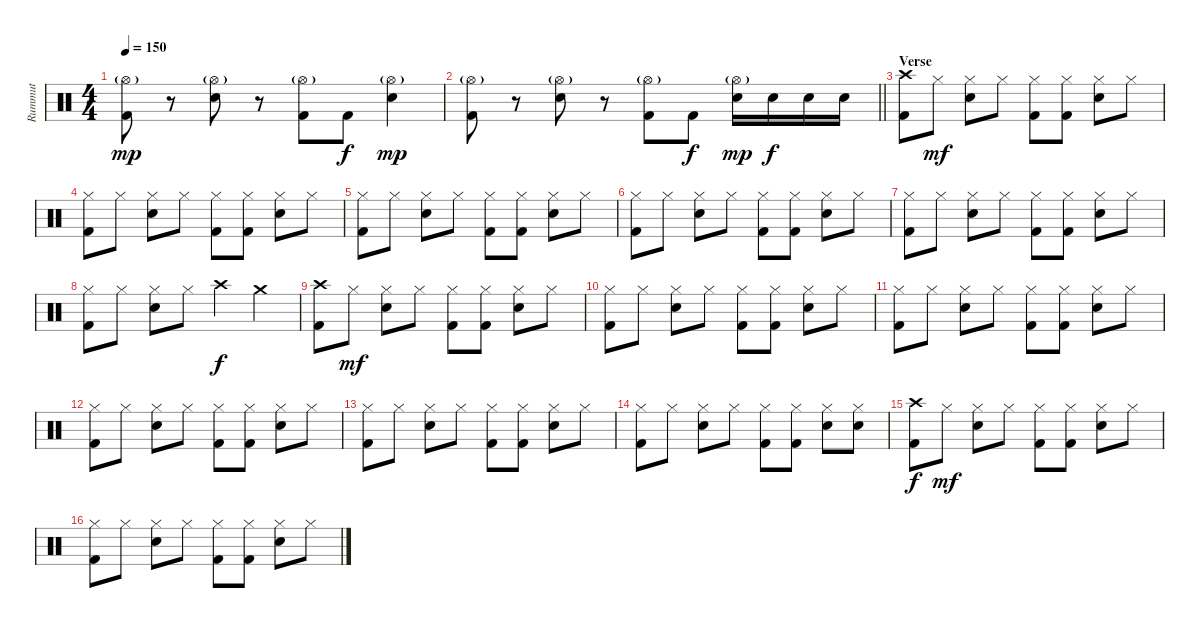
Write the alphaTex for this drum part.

\track ("Rummut" "Rummut") {instrument percussion bank 69}
\staff {score}
\articulation defaults
\ts (4 4)
\tempo 150
\clef neutral
\ks c
("Hi-Hat (open)"{g} "Kick (hit) 2").8{dy mp} r.8 ("Hi-Hat (open)"{g} "Snare (hit) 2").8 r.8 ("Hi-Hat (open)"{g} "Kick (hit) 2").8 "Kick (hit) 2".8{dy f} ("Hi-Hat (open)"{g} "Snare (hit) 2").4{dy mp} |
\barLineRight lightlight
("Hi-Hat (open)"{g} "Kick (hit) 2").8 r.8 ("Hi-Hat (open)"{g} "Snare (hit) 2").8 r.8 ("Hi-Hat (open)"{g} "Kick (hit) 2").8 "Kick (hit) 2".8{dy f} ("Hi-Hat (open)"{g} "Snare (hit) 2").16{dy mp} "Snare (hit) 2".16{dy f} "Snare (hit) 2".16 "Snare (hit) 2".16 |
\section ("" "Verse")
("Crash high (hit)" "Kick (hit) 2").8 "Hi-Hat (closed)".8{dy mf} ("Hi-Hat (closed)" "Snare (hit) 2").8 "Hi-Hat (closed)".8 ("Hi-Hat (closed)" "Kick (hit) 2").8 ("Hi-Hat (closed)" "Kick (hit) 2").8 ("Hi-Hat (closed)" "Snare (hit) 2").8 "Hi-Hat (closed)".8 |
("Hi-Hat (closed)" "Kick (hit) 2").8 "Hi-Hat (closed)".8 ("Hi-Hat (closed)" "Snare (hit) 2").8 "Hi-Hat (closed)".8 ("Hi-Hat (closed)" "Kick (hit) 2").8 ("Hi-Hat (closed)" "Kick (hit) 2").8 ("Hi-Hat (closed)" "Snare (hit) 2").8 "Hi-Hat (closed)".8 |
("Hi-Hat (closed)" "Kick (hit) 2").8 "Hi-Hat (closed)".8 ("Hi-Hat (closed)" "Snare (hit) 2").8 "Hi-Hat (closed)".8 ("Hi-Hat (closed)" "Kick (hit) 2").8 ("Hi-Hat (closed)" "Kick (hit) 2").8 ("Hi-Hat (closed)" "Snare (hit) 2").8 "Hi-Hat (closed)".8 |
("Hi-Hat (closed)" "Kick (hit) 2").8 "Hi-Hat (closed)".8 ("Hi-Hat (closed)" "Snare (hit) 2").8 "Hi-Hat (closed)".8 ("Hi-Hat (closed)" "Kick (hit) 2").8 ("Hi-Hat (closed)" "Kick (hit) 2").8 ("Hi-Hat (closed)" "Snare (hit) 2").8 "Hi-Hat (closed)".8 |
("Hi-Hat (closed)" "Kick (hit) 2").8 "Hi-Hat (closed)".8 ("Hi-Hat (closed)" "Snare (hit) 2").8 "Hi-Hat (closed)".8 ("Hi-Hat (closed)" "Kick (hit) 2").8 ("Hi-Hat (closed)" "Kick (hit) 2").8 ("Hi-Hat (closed)" "Snare (hit) 2").8 "Hi-Hat (closed)".8 |
("Hi-Hat (closed)" "Kick (hit) 2").8 "Hi-Hat (closed)".8 ("Hi-Hat (closed)" "Snare (hit) 2").8 "Hi-Hat (closed)".8 "Crash high (hit)".4{dy f} "Crash medium (hit)".4 |
("Crash high (hit)" "Kick (hit) 2").8 "Hi-Hat (closed)".8{dy mf} ("Hi-Hat (closed)" "Snare (hit) 2").8 "Hi-Hat (closed)".8 ("Hi-Hat (closed)" "Kick (hit) 2").8 ("Hi-Hat (closed)" "Kick (hit) 2").8 ("Hi-Hat (closed)" "Snare (hit) 2").8 "Hi-Hat (closed)".8 |
("Hi-Hat (closed)" "Kick (hit) 2").8 "Hi-Hat (closed)".8 ("Hi-Hat (closed)" "Snare (hit) 2").8 "Hi-Hat (closed)".8 ("Hi-Hat (closed)" "Kick (hit) 2").8 ("Hi-Hat (closed)" "Kick (hit) 2").8 ("Hi-Hat (closed)" "Snare (hit) 2").8 "Hi-Hat (closed)".8 |
("Hi-Hat (closed)" "Kick (hit) 2").8 "Hi-Hat (closed)".8 ("Hi-Hat (closed)" "Snare (hit) 2").8 "Hi-Hat (closed)".8 ("Hi-Hat (closed)" "Kick (hit) 2").8 ("Hi-Hat (closed)" "Kick (hit) 2").8 ("Hi-Hat (closed)" "Snare (hit) 2").8 "Hi-Hat (closed)".8 |
("Hi-Hat (closed)" "Kick (hit) 2").8 "Hi-Hat (closed)".8 ("Hi-Hat (closed)" "Snare (hit) 2").8 "Hi-Hat (closed)".8 ("Hi-Hat (closed)" "Kick (hit) 2").8 ("Hi-Hat (closed)" "Kick (hit) 2").8 ("Hi-Hat (closed)" "Snare (hit) 2").8 "Hi-Hat (closed)".8 |
("Hi-Hat (closed)" "Kick (hit) 2").8 "Hi-Hat (closed)".8 ("Hi-Hat (closed)" "Snare (hit) 2").8 "Hi-Hat (closed)".8 ("Hi-Hat (closed)" "Kick (hit) 2").8 ("Hi-Hat (closed)" "Kick (hit) 2").8 ("Hi-Hat (closed)" "Snare (hit) 2").8 "Hi-Hat (closed)".8 |
("Hi-Hat (closed)" "Kick (hit) 2").8 "Hi-Hat (closed)".8 ("Hi-Hat (closed)" "Snare (hit) 2").8 "Hi-Hat (closed)".8 ("Hi-Hat (closed)" "Kick (hit) 2").8 ("Hi-Hat (closed)" "Kick (hit) 2").8 ("Hi-Hat (closed)" "Snare (hit) 2").8 ("Hi-Hat (closed)" "Snare (hit) 2").8 |
("Crash high (hit)" "Kick (hit) 2").8{dy f} "Hi-Hat (closed)".8{dy mf} ("Hi-Hat (closed)" "Snare (hit) 2").8 "Hi-Hat (closed)".8 ("Hi-Hat (closed)" "Kick (hit) 2").8 ("Hi-Hat (closed)" "Kick (hit) 2").8 ("Hi-Hat (closed)" "Snare (hit) 2").8 "Hi-Hat (closed)".8 |
("Hi-Hat (closed)" "Kick (hit) 2").8 "Hi-Hat (closed)".8 ("Hi-Hat (closed)" "Snare (hit) 2").8 "Hi-Hat (closed)".8 ("Hi-Hat (closed)" "Kick (hit) 2").8 ("Hi-Hat (closed)" "Kick (hit) 2").8 ("Hi-Hat (closed)" "Snare (hit) 2").8 "Hi-Hat (closed)".8
